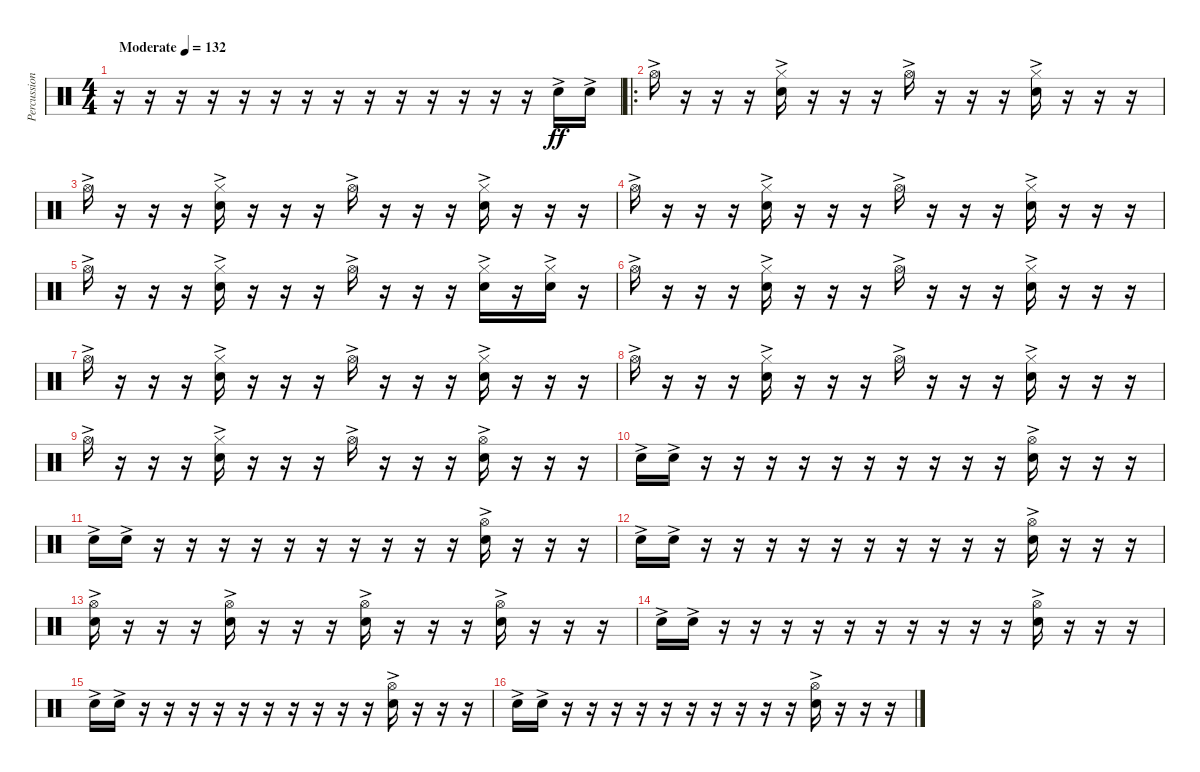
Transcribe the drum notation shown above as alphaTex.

\track ("Percussion" "Percussion") {instrument percussion bank 2}
\staff {score}
\articulation defaults
\ts (4 4)
\tempo (132 "Moderate")
\clef neutral
\ks c
r.16{dy ff} r.16 r.16 r.16 r.16 r.16 r.16 r.16 r.16 r.16 r.16 r.16 r.16 r.16 "Snare (hit) 2"{ac}.16 "Snare (hit) 2"{ac}.16 |
\ro "Hi-Hat (open)"{ac}.16
r.16 r.16 r.16 ("Hi-Hat (closed)"{ac} "Snare (hit) 2"{ac}).16 r.16 r.16 r.16 "Hi-Hat (open)"{ac}.16 r.16 r.16 r.16 ("Hi-Hat (closed)"{ac} "Snare (hit) 2"{ac}).16 r.16 r.16 r.16 |
"Hi-Hat (open)"{ac}.16 r.16 r.16 r.16 ("Hi-Hat (closed)"{ac} "Snare (hit) 2"{ac}).16 r.16 r.16 r.16 "Hi-Hat (open)"{ac}.16 r.16 r.16 r.16 ("Hi-Hat (closed)"{ac} "Snare (hit) 2"{ac}).16 r.16 r.16 r.16 |
"Hi-Hat (open)"{ac}.16 r.16 r.16 r.16 ("Hi-Hat (closed)"{ac} "Snare (hit) 2"{ac}).16 r.16 r.16 r.16 "Hi-Hat (open)"{ac}.16 r.16 r.16 r.16 ("Hi-Hat (closed)"{ac} "Snare (hit) 2"{ac}).16 r.16 r.16 r.16 |
"Hi-Hat (open)"{ac}.16 r.16 r.16 r.16 ("Hi-Hat (closed)"{ac} "Snare (hit) 2"{ac}).16 r.16 r.16 r.16 "Hi-Hat (open)"{ac}.16 r.16 r.16 r.16 ("Hi-Hat (closed)"{ac} "Snare (hit) 2"{ac}).16 r.16 ("Hi-Hat (closed)"{ac} "Snare (hit) 2"{ac}).16 r.16 |
"Hi-Hat (open)"{ac}.16 r.16 r.16 r.16 ("Hi-Hat (closed)"{ac} "Snare (hit) 2"{ac}).16 r.16 r.16 r.16 "Hi-Hat (open)"{ac}.16 r.16 r.16 r.16 ("Hi-Hat (closed)"{ac} "Snare (hit) 2"{ac}).16 r.16 r.16 r.16 |
"Hi-Hat (open)"{ac}.16 r.16 r.16 r.16 ("Hi-Hat (closed)"{ac} "Snare (hit) 2"{ac}).16 r.16 r.16 r.16 "Hi-Hat (open)"{ac}.16 r.16 r.16 r.16 ("Hi-Hat (closed)"{ac} "Snare (hit) 2"{ac}).16 r.16 r.16 r.16 |
"Hi-Hat (open)"{ac}.16 r.16 r.16 r.16 ("Hi-Hat (closed)"{ac} "Snare (hit) 2"{ac}).16 r.16 r.16 r.16 "Hi-Hat (open)"{ac}.16 r.16 r.16 r.16 ("Hi-Hat (closed)"{ac} "Snare (hit) 2"{ac}).16 r.16 r.16 r.16 |
"Hi-Hat (open)"{ac}.16 r.16 r.16 r.16 ("Hi-Hat (closed)"{ac} "Snare (hit) 2"{ac}).16 r.16 r.16 r.16 "Hi-Hat (open)"{ac}.16 r.16 r.16 r.16 ("Hi-Hat (open)"{ac} "Snare (hit) 2"{ac}).16 r.16 r.16 r.16 |
"Snare (hit) 2"{ac}.16 "Snare (hit) 2"{ac}.16 r.16 r.16 r.16 r.16 r.16 r.16 r.16 r.16 r.16 r.16 ("Hi-Hat (open)"{ac} "Snare (hit) 2"{ac}).16 r.16 r.16 r.16 |
"Snare (hit) 2"{ac}.16 "Snare (hit) 2"{ac}.16 r.16 r.16 r.16 r.16 r.16 r.16 r.16 r.16 r.16 r.16 ("Hi-Hat (open)"{ac} "Snare (hit) 2"{ac}).16 r.16 r.16 r.16 |
"Snare (hit) 2"{ac}.16 "Snare (hit) 2"{ac}.16 r.16 r.16 r.16 r.16 r.16 r.16 r.16 r.16 r.16 r.16 ("Hi-Hat (open)"{ac} "Snare (hit) 2"{ac}).16 r.16 r.16 r.16 |
("Hi-Hat (open)"{ac} "Snare (hit) 2"{ac}).16 r.16 r.16 r.16 ("Hi-Hat (open)"{ac} "Snare (hit) 2"{ac}).16 r.16 r.16 r.16 ("Hi-Hat (open)"{ac} "Snare (hit) 2"{ac}).16 r.16 r.16 r.16 ("Hi-Hat (open)"{ac} "Snare (hit) 2"{ac}).16 r.16 r.16 r.16 |
"Snare (hit) 2"{ac}.16 "Snare (hit) 2"{ac}.16 r.16 r.16 r.16 r.16 r.16 r.16 r.16 r.16 r.16 r.16 ("Hi-Hat (open)"{ac} "Snare (hit) 2"{ac}).16 r.16 r.16 r.16 |
"Snare (hit) 2"{ac}.16 "Snare (hit) 2"{ac}.16 r.16 r.16 r.16 r.16 r.16 r.16 r.16 r.16 r.16 r.16 ("Hi-Hat (open)"{ac} "Snare (hit) 2"{ac}).16 r.16 r.16 r.16 |
"Snare (hit) 2"{ac}.16 "Snare (hit) 2"{ac}.16 r.16 r.16 r.16 r.16 r.16 r.16 r.16 r.16 r.16 r.16 ("Hi-Hat (open)"{ac} "Snare (hit) 2"{ac}).16 r.16 r.16 r.16
